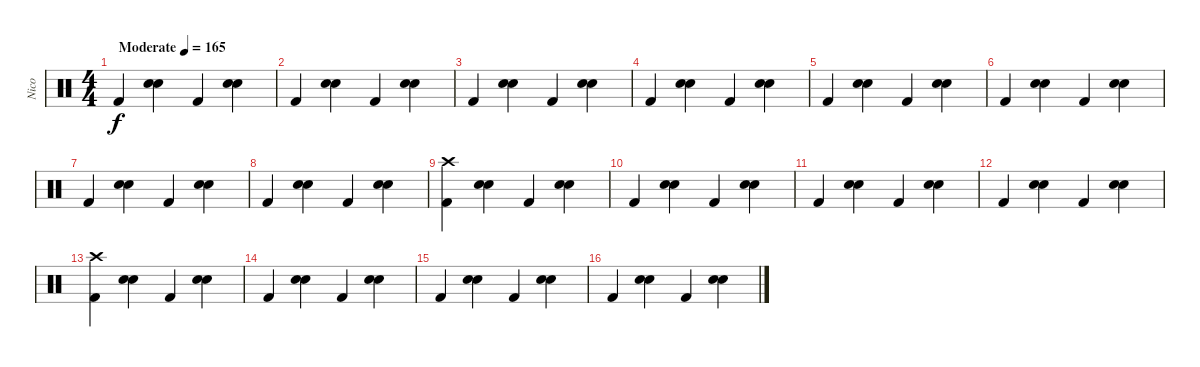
\track ("Nico" "Nico") {instrument percussion}
\staff {score}
\articulation defaults
\ts (4 4)
\tempo (165 "Moderate")
\clef neutral
\ks c "Kick (hit) 2".4{dy f}
("Electric Snare (hit)" "Electric Snare (hit)").4{bd 240} "Kick (hit) 2".4 ("Electric Snare (hit)" "Electric Snare (hit)").4{bd 240} |
"Kick (hit) 2".4 ("Electric Snare (hit)" "Electric Snare (hit)").4{bd 240} "Kick (hit) 2".4 ("Electric Snare (hit)" "Electric Snare (hit)").4{bd 240} |
"Kick (hit) 2".4 ("Electric Snare (hit)" "Electric Snare (hit)").4{bd 240} "Kick (hit) 2".4 ("Electric Snare (hit)" "Electric Snare (hit)").4{bd 240} |
"Kick (hit) 2".4 ("Electric Snare (hit)" "Electric Snare (hit)").4{bd 240} "Kick (hit) 2".4 ("Electric Snare (hit)" "Electric Snare (hit)").4{bd 240} |
"Kick (hit) 2".4 ("Electric Snare (hit)" "Electric Snare (hit)").4{bd 240} "Kick (hit) 2".4 ("Electric Snare (hit)" "Electric Snare (hit)").4{bd 240} |
"Kick (hit) 2".4 ("Electric Snare (hit)" "Electric Snare (hit)").4{bd 240} "Kick (hit) 2".4 ("Electric Snare (hit)" "Electric Snare (hit)").4{bd 240} |
"Kick (hit) 2".4 ("Electric Snare (hit)" "Electric Snare (hit)").4{bd 240} "Kick (hit) 2".4 ("Electric Snare (hit)" "Electric Snare (hit)").4{bd 240} |
"Kick (hit) 2".4 ("Electric Snare (hit)" "Electric Snare (hit)").4{bd 240} "Kick (hit) 2".4 ("Electric Snare (hit)" "Electric Snare (hit)").4{bd 240} |
("Kick (hit) 2" "Crash high (hit)").4 ("Electric Snare (hit)" "Electric Snare (hit)").4{bd 240} "Kick (hit) 2".4 ("Electric Snare (hit)" "Electric Snare (hit)").4{bd 240} |
"Kick (hit) 2".4 ("Electric Snare (hit)" "Electric Snare (hit)").4{bd 240} "Kick (hit) 2".4 ("Electric Snare (hit)" "Electric Snare (hit)").4{bd 240} |
"Kick (hit) 2".4 ("Electric Snare (hit)" "Electric Snare (hit)").4{bd 240} "Kick (hit) 2".4 ("Electric Snare (hit)" "Electric Snare (hit)").4{bd 240} |
"Kick (hit) 2".4 ("Electric Snare (hit)" "Electric Snare (hit)").4{bd 240} "Kick (hit) 2".4 ("Electric Snare (hit)" "Electric Snare (hit)").4{bd 240} |
("Kick (hit) 2" "Crash high (hit)").4 ("Electric Snare (hit)" "Electric Snare (hit)").4{bd 240} "Kick (hit) 2".4 ("Electric Snare (hit)" "Electric Snare (hit)").4{bd 240} |
"Kick (hit) 2".4 ("Electric Snare (hit)" "Electric Snare (hit)").4{bd 240} "Kick (hit) 2".4 ("Electric Snare (hit)" "Electric Snare (hit)").4{bd 240} |
"Kick (hit) 2".4 ("Electric Snare (hit)" "Electric Snare (hit)").4{bd 240} "Kick (hit) 2".4 ("Electric Snare (hit)" "Electric Snare (hit)").4{bd 240} |
"Kick (hit) 2".4 ("Electric Snare (hit)" "Electric Snare (hit)").4{bd 240} "Kick (hit) 2".4 ("Electric Snare (hit)" "Electric Snare (hit)").4{bd 240}
